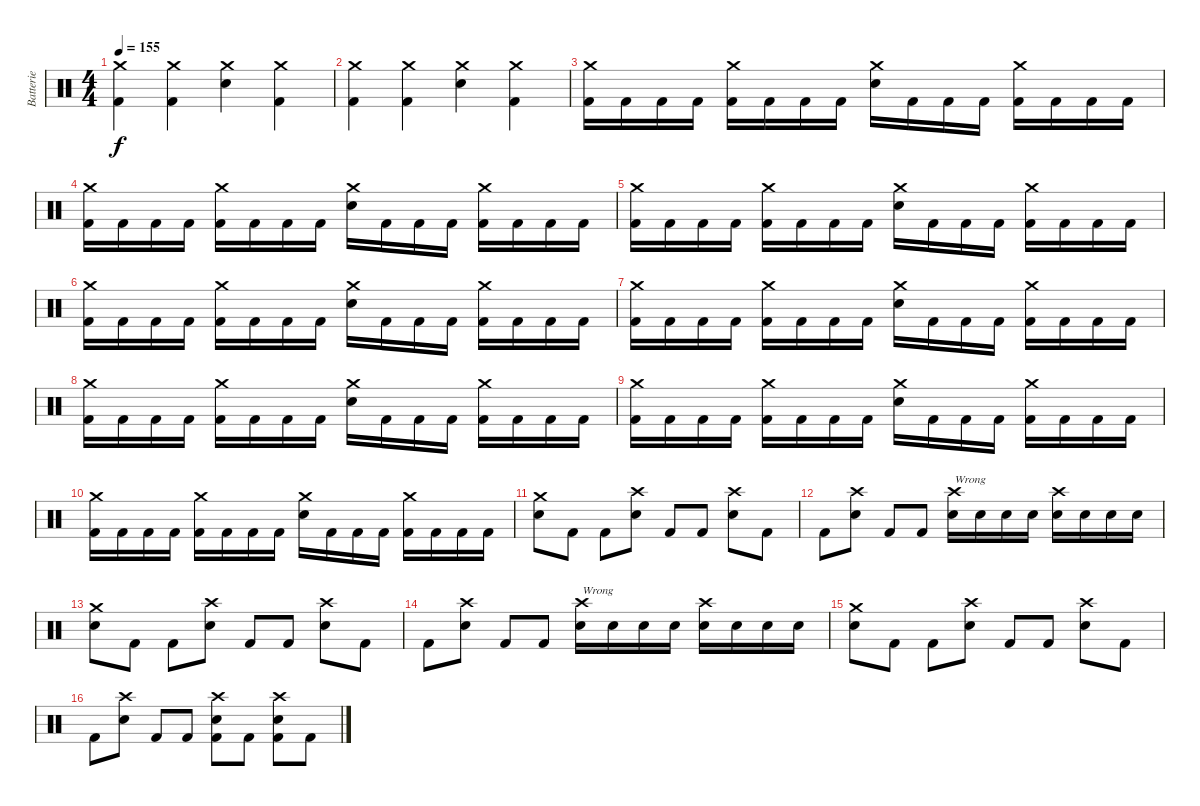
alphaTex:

\track ("Batterie" "Batterie") {instrument percussion}
\staff {score}
\articulation defaults
\ts (4 4)
\tempo 155
\clef neutral
\ks c
("Crash medium (hit)" "Kick (hit) 2").4{dy f} ("Crash medium (hit)" "Kick (hit) 2").4 ("Crash medium (hit)" "Electric Snare (hit)").4 ("Crash medium (hit)" "Kick (hit) 2").4 |
("Crash medium (hit)" "Kick (hit) 2").4 ("Crash medium (hit)" "Kick (hit) 2").4 ("Crash medium (hit)" "Electric Snare (hit)").4 ("Crash medium (hit)" "Kick (hit) 2").4 |
("Crash medium (hit)" "Kick (hit) 2").16 "Kick (hit) 2".16 "Kick (hit) 2".16 "Kick (hit) 2".16 ("Crash medium (hit)" "Kick (hit) 2").16 "Kick (hit) 2".16 "Kick (hit) 2".16 "Kick (hit) 2".16 ("Crash medium (hit)" "Electric Snare (hit)").16 "Kick (hit) 2".16 "Kick (hit) 2".16 "Kick (hit) 2".16 ("Crash medium (hit)" "Kick (hit) 2").16 "Kick (hit) 2".16 "Kick (hit) 2".16 "Kick (hit) 2".16 |
("Crash medium (hit)" "Kick (hit) 2").16 "Kick (hit) 2".16 "Kick (hit) 2".16 "Kick (hit) 2".16 ("Crash medium (hit)" "Kick (hit) 2").16 "Kick (hit) 2".16 "Kick (hit) 2".16 "Kick (hit) 2".16 ("Crash medium (hit)" "Electric Snare (hit)").16 "Kick (hit) 2".16 "Kick (hit) 2".16 "Kick (hit) 2".16 ("Crash medium (hit)" "Kick (hit) 2").16 "Kick (hit) 2".16 "Kick (hit) 2".16 "Kick (hit) 2".16 |
("Crash medium (hit)" "Kick (hit) 2").16 "Kick (hit) 2".16 "Kick (hit) 2".16 "Kick (hit) 2".16 ("Crash medium (hit)" "Kick (hit) 2").16 "Kick (hit) 2".16 "Kick (hit) 2".16 "Kick (hit) 2".16 ("Crash medium (hit)" "Electric Snare (hit)").16 "Kick (hit) 2".16 "Kick (hit) 2".16 "Kick (hit) 2".16 ("Crash medium (hit)" "Kick (hit) 2").16 "Kick (hit) 2".16 "Kick (hit) 2".16 "Kick (hit) 2".16 |
("Crash medium (hit)" "Kick (hit) 2").16 "Kick (hit) 2".16 "Kick (hit) 2".16 "Kick (hit) 2".16 ("Crash medium (hit)" "Kick (hit) 2").16 "Kick (hit) 2".16 "Kick (hit) 2".16 "Kick (hit) 2".16 ("Crash medium (hit)" "Electric Snare (hit)").16 "Kick (hit) 2".16 "Kick (hit) 2".16 "Kick (hit) 2".16 ("Crash medium (hit)" "Kick (hit) 2").16 "Kick (hit) 2".16 "Kick (hit) 2".16 "Kick (hit) 2".16 |
("Crash medium (hit)" "Kick (hit) 2").16 "Kick (hit) 2".16 "Kick (hit) 2".16 "Kick (hit) 2".16 ("Crash medium (hit)" "Kick (hit) 2").16 "Kick (hit) 2".16 "Kick (hit) 2".16 "Kick (hit) 2".16 ("Crash medium (hit)" "Electric Snare (hit)").16 "Kick (hit) 2".16 "Kick (hit) 2".16 "Kick (hit) 2".16 ("Crash medium (hit)" "Kick (hit) 2").16 "Kick (hit) 2".16 "Kick (hit) 2".16 "Kick (hit) 2".16 |
("Crash medium (hit)" "Kick (hit) 2").16 "Kick (hit) 2".16 "Kick (hit) 2".16 "Kick (hit) 2".16 ("Crash medium (hit)" "Kick (hit) 2").16 "Kick (hit) 2".16 "Kick (hit) 2".16 "Kick (hit) 2".16 ("Crash medium (hit)" "Electric Snare (hit)").16 "Kick (hit) 2".16 "Kick (hit) 2".16 "Kick (hit) 2".16 ("Crash medium (hit)" "Kick (hit) 2").16 "Kick (hit) 2".16 "Kick (hit) 2".16 "Kick (hit) 2".16 |
("Crash medium (hit)" "Kick (hit) 2").16 "Kick (hit) 2".16 "Kick (hit) 2".16 "Kick (hit) 2".16 ("Crash medium (hit)" "Kick (hit) 2").16 "Kick (hit) 2".16 "Kick (hit) 2".16 "Kick (hit) 2".16 ("Crash medium (hit)" "Electric Snare (hit)").16 "Kick (hit) 2".16 "Kick (hit) 2".16 "Kick (hit) 2".16 ("Crash medium (hit)" "Kick (hit) 2").16 "Kick (hit) 2".16 "Kick (hit) 2".16 "Kick (hit) 2".16 |
("Crash medium (hit)" "Kick (hit) 2").16 "Kick (hit) 2".16 "Kick (hit) 2".16 "Kick (hit) 2".16 ("Crash medium (hit)" "Kick (hit) 2").16 "Kick (hit) 2".16 "Kick (hit) 2".16 "Kick (hit) 2".16 ("Crash medium (hit)" "Electric Snare (hit)").16 "Kick (hit) 2".16 "Kick (hit) 2".16 "Kick (hit) 2".16 ("Crash medium (hit)" "Kick (hit) 2").16 "Kick (hit) 2".16 "Kick (hit) 2".16 "Kick (hit) 2".16 |
\section ("" "")
("Crash medium (hit)" "Electric Snare (hit)").8 "Kick (hit) 2".8 "Kick (hit) 2".8 ("Crash high (hit)" "Electric Snare (hit)").8 "Kick (hit) 2".8 "Kick (hit) 2".8 ("Crash high (hit)" "Electric Snare (hit)").8 "Kick (hit) 2".8 |
"Kick (hit) 2".8 ("Crash high (hit)" "Electric Snare (hit)").8 "Kick (hit) 2".8 "Kick (hit) 2".8 ("Crash high (hit)" "Electric Snare (hit)").16{txt "Wrong"} "Electric Snare (hit)".16 "Electric Snare (hit)".16 "Electric Snare (hit)".16 ("Crash high (hit)" "Electric Snare (hit)").16 "Electric Snare (hit)".16 "Electric Snare (hit)".16 "Electric Snare (hit)".16 |
("Crash medium (hit)" "Electric Snare (hit)").8 "Kick (hit) 2".8 "Kick (hit) 2".8 ("Crash high (hit)" "Electric Snare (hit)").8 "Kick (hit) 2".8 "Kick (hit) 2".8 ("Crash high (hit)" "Electric Snare (hit)").8 "Kick (hit) 2".8 |
"Kick (hit) 2".8 ("Crash high (hit)" "Electric Snare (hit)").8 "Kick (hit) 2".8 "Kick (hit) 2".8 ("Crash high (hit)" "Electric Snare (hit)").16{txt "Wrong"} "Electric Snare (hit)".16 "Electric Snare (hit)".16 "Electric Snare (hit)".16 ("Crash high (hit)" "Electric Snare (hit)").16 "Electric Snare (hit)".16 "Electric Snare (hit)".16 "Electric Snare (hit)".16 |
("Crash medium (hit)" "Electric Snare (hit)").8 "Kick (hit) 2".8 "Kick (hit) 2".8 ("Crash high (hit)" "Electric Snare (hit)").8 "Kick (hit) 2".8 "Kick (hit) 2".8 ("Crash high (hit)" "Electric Snare (hit)").8 "Kick (hit) 2".8 |
"Kick (hit) 2".8 ("Crash high (hit)" "Electric Snare (hit)").8 "Kick (hit) 2".8 "Kick (hit) 2".8 ("Crash high (hit)" "Electric Snare (hit)" "Kick (hit) 2").8 "Kick (hit) 2".8 ("Crash high (hit)" "Electric Snare (hit)" "Kick (hit) 2").8 "Kick (hit) 2".8
